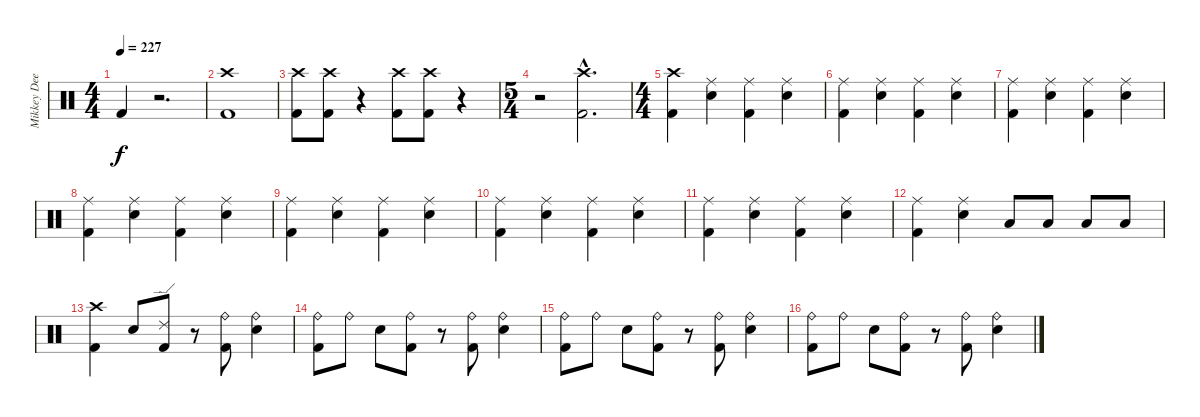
\track ("Mikkey Dee" "Mikkey Dee") {instrument percussion}
\staff {score}
\articulation defaults
\ts (4 4)
\tempo 227
\clef neutral
\ks c "Kick (hit) 2".4{dy f}
r.2{d} |
("Kick (hit) 2" "Crash high (hit)").1 |
("Kick (hit) 2" "Crash high (hit)").8 ("Crash high (hit)" "Kick (hit) 2").8 r.4 ("Kick (hit) 2" "Crash high (hit)").8 ("Crash high (hit)" "Kick (hit) 2").8 r.4 |
\ts (5 4)
r.2 ("Crash high (hit)"{hac} "Kick (hit) 2"{hac}).2{d} |
\ts (4 4)
("Crash high (hit)" "Kick (hit) 2").4 ("Ride (middle)" "Electric Snare (hit)").4 ("Ride (middle)" "Kick (hit) 2").4 ("Electric Snare (hit)" "Ride (middle)").4 |
("Kick (hit) 2" "Ride (middle)").4 ("Electric Snare (hit)" "Ride (middle)").4 ("Ride (middle)" "Kick (hit) 2").4 ("Ride (middle)" "Electric Snare (hit)").4 |
("Ride (middle)" "Kick (hit) 2").4 ("Ride (middle)" "Electric Snare (hit)").4 ("Ride (middle)" "Kick (hit) 2").4 ("Ride (middle)" "Electric Snare (hit)").4 |
("Kick (hit) 2" "Ride (middle)").4 ("Electric Snare (hit)" "Ride (middle)").4 ("Ride (middle)" "Kick (hit) 2").4 ("Electric Snare (hit)" "Ride (middle)").4 |
("Kick (hit) 2" "Ride (middle)").4 ("Ride (middle)" "Electric Snare (hit)").4 ("Kick (hit) 2" "Ride (middle)").4 ("Ride (middle)" "Electric Snare (hit)").4 |
("Kick (hit) 2" "Ride (middle)").4 ("Ride (middle)" "Electric Snare (hit)").4 ("Ride (middle)" "Kick (hit) 2").4 ("Ride (middle)" "Electric Snare (hit)").4 |
("Kick (hit) 2" "Ride (middle)").4 ("Electric Snare (hit)" "Ride (middle)").4 ("Kick (hit) 2" "Ride (middle)").4 ("Ride (middle)" "Electric Snare (hit)").4 |
("Ride (middle)" "Kick (hit) 2").4 ("Electric Snare (hit)" "Ride (middle)").4 "Low Tom (hit)".8 "Low Tom (hit)".8 "Low Tom (hit)".8 "Low Tom (hit)".8 |
("Kick (hit) 2" "Crash high (hit)").4 "Electric Snare (hit)".8 ("Ride (edge) 2" "Kick (hit) 2").8 r.8 ("Kick (hit) 2" "Ride (bell)").8 ("Electric Snare (hit)" "Ride (bell)").4 |
("Ride (bell)" "Kick (hit) 2").8 "Ride (bell)".8 "Electric Snare (hit)".8 ("Kick (hit) 2" "Ride (bell)").8 r.8 ("Ride (bell)" "Kick (hit) 2").8 ("Ride (bell)" "Electric Snare (hit)").4 |
("Kick (hit) 2" "Ride (bell)").8 "Ride (bell)".8 "Electric Snare (hit)".8 ("Ride (bell)" "Kick (hit) 2").8 r.8 ("Ride (bell)" "Kick (hit) 2").8 ("Ride (bell)" "Electric Snare (hit)").4 |
("Kick (hit) 2" "Ride (bell)").8 "Ride (bell)".8 "Electric Snare (hit)".8 ("Kick (hit) 2" "Ride (bell)").8 r.8 ("Kick (hit) 2" "Ride (bell)").8 ("Electric Snare (hit)" "Ride (bell)").4
